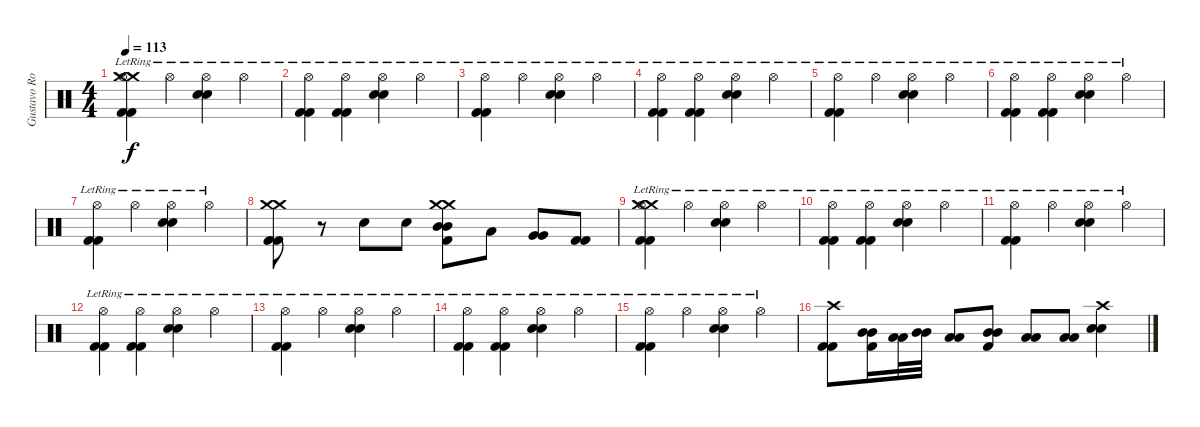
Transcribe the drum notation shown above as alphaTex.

\track ("Gustavo Rowek" "Gustavo Ro") {instrument percussion}
\staff {score}
\articulation defaults
\ts (4 4)
\tempo 113
\clef neutral
\ks c
("Crash medium (hit)"{lr} "Crash medium (hit)"{lr} "Hi-Hat (open)"{lr} "Kick (hit) 2"{lr} "Kick (hit) 2"{lr}).4{dy f} "Hi-Hat (open)"{lr}.4 ("Hi-Hat (open)"{lr} "Electric Snare (hit)"{lr} "Electric Snare (hit)"{lr}).4 "Hi-Hat (open)"{lr}.4 |
("Hi-Hat (open)"{lr} "Kick (hit) 2"{lr} "Kick (hit) 2"{lr}).4 ("Hi-Hat (open)"{lr} "Kick (hit) 2"{lr} "Kick (hit) 2"{lr}).4 ("Hi-Hat (open)"{lr} "Electric Snare (hit)"{lr} "Electric Snare (hit)"{lr}).4 "Hi-Hat (open)"{lr}.4 |
("Hi-Hat (open)"{lr} "Kick (hit) 2"{lr} "Kick (hit) 2"{lr}).4 "Hi-Hat (open)"{lr}.4 ("Hi-Hat (open)"{lr} "Electric Snare (hit)"{lr} "Electric Snare (hit)"{lr}).4 "Hi-Hat (open)"{lr}.4 |
("Hi-Hat (open)"{lr} "Kick (hit) 2"{lr} "Kick (hit) 2"{lr}).4 ("Hi-Hat (open)"{lr} "Kick (hit) 2"{lr} "Kick (hit) 2"{lr}).4 ("Hi-Hat (open)"{lr} "Electric Snare (hit)"{lr} "Electric Snare (hit)"{lr}).4 "Hi-Hat (open)"{lr}.4 |
("Hi-Hat (open)"{lr} "Kick (hit) 2"{lr} "Kick (hit) 2"{lr}).4 "Hi-Hat (open)"{lr}.4 ("Hi-Hat (open)"{lr} "Electric Snare (hit)"{lr} "Electric Snare (hit)"{lr}).4 "Hi-Hat (open)"{lr}.4 |
("Hi-Hat (open)"{lr} "Kick (hit) 2"{lr} "Kick (hit) 2"{lr}).4 ("Hi-Hat (open)"{lr} "Kick (hit) 2"{lr} "Kick (hit) 2"{lr}).4 ("Hi-Hat (open)"{lr} "Electric Snare (hit)"{lr} "Electric Snare (hit)"{lr}).4 "Hi-Hat (open)"{lr}.4 |
("Hi-Hat (open)"{lr} "Kick (hit) 2"{lr} "Kick (hit) 2"{lr}).4 "Hi-Hat (open)"{lr}.4 ("Hi-Hat (open)"{lr} "Electric Snare (hit)"{lr} "Electric Snare (hit)"{lr}).4 "Hi-Hat (open)"{lr}.4 |
("Crash medium (hit)" "Crash medium (hit)" "Kick (hit) 2" "Kick (hit) 2").8 r.8 "Electric Snare (hit)".8 "Electric Snare (hit)".8 ("Crash medium (hit)" "Crash medium (hit)" "Mid Tom (hit)" "Mid Tom (hit)" "Kick (hit) 2").8 "Low Tom (hit)".8 ("Very Low Tom (hit)" "Very Low Tom (hit)").8 ("Kick (hit) 2" "Kick (hit) 2").8 |
("Crash medium (hit)"{lr} "Crash medium (hit)"{lr} "Hi-Hat (open)"{lr} "Kick (hit) 2"{lr} "Kick (hit) 2"{lr}).4 "Hi-Hat (open)"{lr}.4 ("Hi-Hat (open)"{lr} "Electric Snare (hit)"{lr} "Electric Snare (hit)"{lr}).4 "Hi-Hat (open)"{lr}.4 |
("Hi-Hat (open)"{lr} "Kick (hit) 2"{lr} "Kick (hit) 2"{lr}).4 ("Hi-Hat (open)"{lr} "Kick (hit) 2"{lr} "Kick (hit) 2"{lr}).4 ("Hi-Hat (open)"{lr} "Electric Snare (hit)"{lr} "Electric Snare (hit)"{lr}).4 "Hi-Hat (open)"{lr}.4 |
("Hi-Hat (open)"{lr} "Kick (hit) 2"{lr} "Kick (hit) 2"{lr}).4 "Hi-Hat (open)"{lr}.4 ("Hi-Hat (open)"{lr} "Electric Snare (hit)"{lr} "Electric Snare (hit)"{lr}).4 "Hi-Hat (open)"{lr}.4 |
("Hi-Hat (open)"{lr} "Kick (hit) 2"{lr} "Kick (hit) 2"{lr}).4 ("Hi-Hat (open)"{lr} "Kick (hit) 2"{lr} "Kick (hit) 2"{lr}).4 ("Hi-Hat (open)"{lr} "Electric Snare (hit)"{lr} "Electric Snare (hit)"{lr}).4 "Hi-Hat (open)"{lr}.4 |
("Hi-Hat (open)"{lr} "Kick (hit) 2"{lr} "Kick (hit) 2"{lr}).4 "Hi-Hat (open)"{lr}.4 ("Hi-Hat (open)"{lr} "Electric Snare (hit)"{lr} "Electric Snare (hit)"{lr}).4 "Hi-Hat (open)"{lr}.4 |
("Hi-Hat (open)"{lr} "Kick (hit) 2"{lr} "Kick (hit) 2"{lr}).4 ("Hi-Hat (open)"{lr} "Kick (hit) 2"{lr} "Kick (hit) 2"{lr}).4 ("Hi-Hat (open)"{lr} "Electric Snare (hit)"{lr} "Electric Snare (hit)"{lr}).4 "Hi-Hat (open)"{lr}.4 |
("Hi-Hat (open)"{lr} "Kick (hit) 2"{lr} "Kick (hit) 2"{lr}).4 "Hi-Hat (open)"{lr}.4 ("Hi-Hat (open)"{lr} "Electric Snare (hit)"{lr} "Electric Snare (hit)"{lr}).4 "Hi-Hat (open)"{lr}.4 |
("Crash high (hit)" "Kick (hit) 2" "Kick (hit) 2").8 ("Mid Tom (hit)" "Mid Tom (hit)" "Kick (hit) 2").16 ("Low Tom (hit)" "Low Tom (hit)").32 ("Mid Tom (hit)" "Mid Tom (hit)").32 ("Low Tom (hit)" "Low Tom (hit)").8 ("Mid Tom (hit)" "Mid Tom (hit)" "Kick (hit) 2").8 ("Low Tom (hit)" "Low Tom (hit)").8 ("Low Tom (hit)" "Low Tom (hit)").8 ("Crash high (hit)" "Electric Snare (hit)" "Electric Snare (hit)").4
